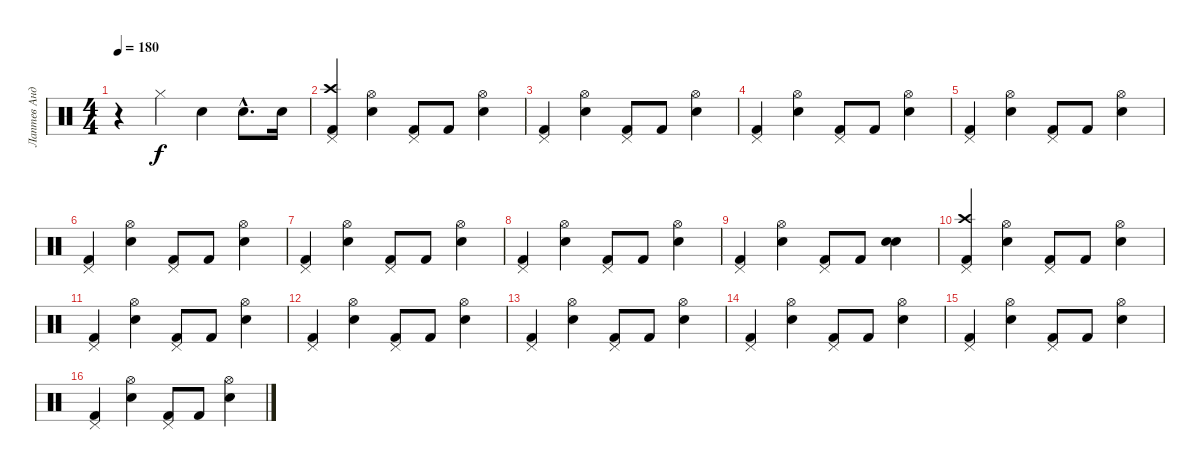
\track ("Лаптев Андрей" "Лаптев Анд") {instrument percussion}
\staff {score}
\articulation defaults
\ts (4 4)
\tempo 180
\clef neutral
\ks c
r.4{dy f} "Hi-Hat (closed)".4 "Snare (hit) 2".4 "Snare (hit) 2"{hac}.8{d} "Snare (hit) 2".16 |
("Kick (hit) 2" "Crash high (hit)" "Pedal Hi-Hat (hit)").4 ("Snare (hit) 2" "Hi-Hat (open)").4 ("Kick (hit) 2" "Pedal Hi-Hat (hit)").8 "Kick (hit) 2".8 ("Snare (hit) 2" "Hi-Hat (open)").4 |
("Kick (hit) 2" "Pedal Hi-Hat (hit)").4 ("Snare (hit) 2" "Hi-Hat (open)").4 ("Kick (hit) 2" "Pedal Hi-Hat (hit)").8 "Kick (hit) 2".8 ("Snare (hit) 2" "Hi-Hat (open)").4 |
("Kick (hit) 2" "Pedal Hi-Hat (hit)").4 ("Snare (hit) 2" "Hi-Hat (open)").4 ("Kick (hit) 2" "Pedal Hi-Hat (hit)").8 "Kick (hit) 2".8 ("Snare (hit) 2" "Hi-Hat (open)").4 |
("Kick (hit) 2" "Pedal Hi-Hat (hit)").4 ("Snare (hit) 2" "Hi-Hat (open)").4 ("Kick (hit) 2" "Pedal Hi-Hat (hit)").8 "Kick (hit) 2".8 ("Snare (hit) 2" "Hi-Hat (open)").4 |
("Kick (hit) 2" "Pedal Hi-Hat (hit)").4 ("Snare (hit) 2" "Hi-Hat (open)").4 ("Kick (hit) 2" "Pedal Hi-Hat (hit)").8 "Kick (hit) 2".8 ("Snare (hit) 2" "Hi-Hat (open)").4 |
("Kick (hit) 2" "Pedal Hi-Hat (hit)").4 ("Snare (hit) 2" "Hi-Hat (open)").4 ("Kick (hit) 2" "Pedal Hi-Hat (hit)").8 "Kick (hit) 2".8 ("Snare (hit) 2" "Hi-Hat (open)").4 |
("Kick (hit) 2" "Pedal Hi-Hat (hit)").4 ("Snare (hit) 2" "Hi-Hat (open)").4 ("Kick (hit) 2" "Pedal Hi-Hat (hit)").8 "Kick (hit) 2".8 ("Snare (hit) 2" "Hi-Hat (open)").4 |
("Kick (hit) 2" "Pedal Hi-Hat (hit)").4 ("Snare (hit) 2" "Hi-Hat (open)").4 ("Kick (hit) 2" "Pedal Hi-Hat (hit)").8 "Kick (hit) 2".8 ("Snare (hit) 2" "Electric Snare (hit)").4 |
("Kick (hit) 2" "Crash high (hit)" "Pedal Hi-Hat (hit)").4 ("Snare (hit) 2" "Hi-Hat (open)").4 ("Kick (hit) 2" "Pedal Hi-Hat (hit)").8 "Kick (hit) 2".8 ("Snare (hit) 2" "Hi-Hat (open)").4 |
("Kick (hit) 2" "Pedal Hi-Hat (hit)").4 ("Snare (hit) 2" "Hi-Hat (open)").4 ("Kick (hit) 2" "Pedal Hi-Hat (hit)").8 "Kick (hit) 2".8 ("Snare (hit) 2" "Hi-Hat (open)").4 |
("Kick (hit) 2" "Pedal Hi-Hat (hit)").4 ("Snare (hit) 2" "Hi-Hat (open)").4 ("Kick (hit) 2" "Pedal Hi-Hat (hit)").8 "Kick (hit) 2".8 ("Snare (hit) 2" "Hi-Hat (open)").4 |
("Kick (hit) 2" "Pedal Hi-Hat (hit)").4 ("Snare (hit) 2" "Hi-Hat (open)").4 ("Kick (hit) 2" "Pedal Hi-Hat (hit)").8 "Kick (hit) 2".8 ("Snare (hit) 2" "Hi-Hat (open)").4 |
("Kick (hit) 2" "Pedal Hi-Hat (hit)").4 ("Snare (hit) 2" "Hi-Hat (open)").4 ("Kick (hit) 2" "Pedal Hi-Hat (hit)").8 "Kick (hit) 2".8 ("Snare (hit) 2" "Hi-Hat (open)").4 |
("Kick (hit) 2" "Pedal Hi-Hat (hit)").4 ("Snare (hit) 2" "Hi-Hat (open)").4 ("Kick (hit) 2" "Pedal Hi-Hat (hit)").8 "Kick (hit) 2".8 ("Snare (hit) 2" "Hi-Hat (open)").4 |
("Kick (hit) 2" "Pedal Hi-Hat (hit)").4 ("Snare (hit) 2" "Hi-Hat (open)").4 ("Kick (hit) 2" "Pedal Hi-Hat (hit)").8 "Kick (hit) 2".8 ("Snare (hit) 2" "Hi-Hat (open)").4
